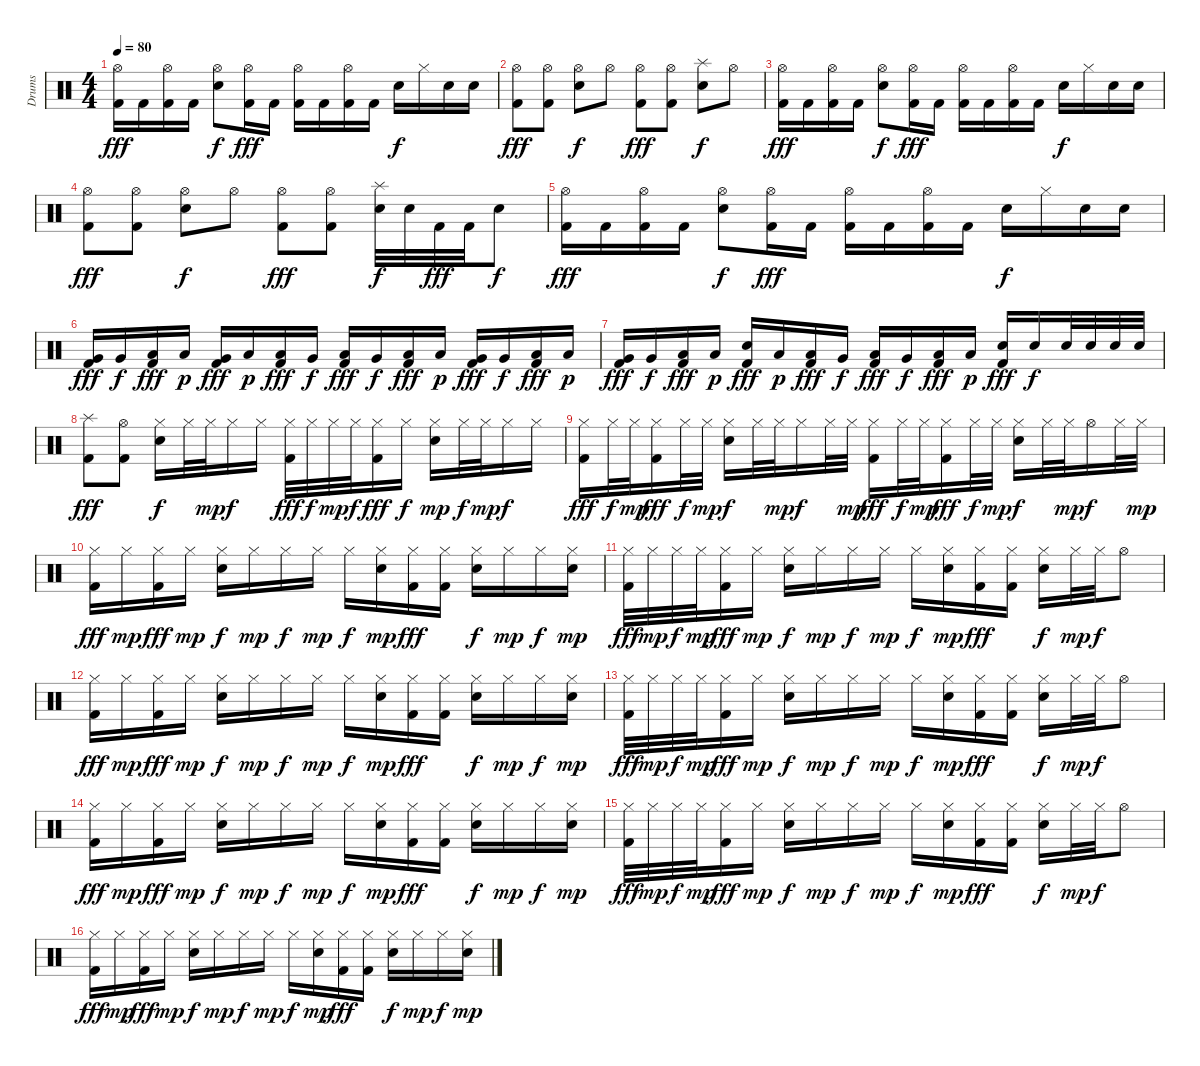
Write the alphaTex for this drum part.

\track ("Drums" "Drums") {instrument percussion}
\staff {score}
\articulation defaults
\ts (4 4)
\tempo 80
\clef neutral
\ks c
("Hi-Hat (open)" "Kick (hit) 2").16{dy fff} "Kick (hit) 2".16 ("Hi-Hat (open)" "Kick (hit) 2").16 "Kick (hit) 2".16 ("Hi-Hat (open)" "Snare (hit) 2").8{dy f} ("Hi-Hat (open)" "Kick (hit) 2").16{dy fff} "Kick (hit) 2".16 ("Hi-Hat (open)" "Kick (hit) 2").16 "Kick (hit) 2".16 ("Hi-Hat (open)" "Kick (hit) 2").16 "Kick (hit) 2".16 "Snare (hit) 2".16{dy f} "Hi-Hat (closed)".16 "Snare (hit) 2".16 "Snare (hit) 2".16 |
("Hi-Hat (open)" "Kick (hit) 2").8{dy fff} ("Hi-Hat (open)" "Kick (hit) 2").8 ("Hi-Hat (open)" "Snare (hit) 2").8{dy f} "Hi-Hat (open)".8 ("Hi-Hat (open)" "Kick (hit) 2").8{dy fff} ("Hi-Hat (open)" "Kick (hit) 2").8 ("Splash (hit)" "Snare (hit) 2").8{dy f} "Hi-Hat (open)".8 |
("Hi-Hat (open)" "Kick (hit) 2").16{dy fff} "Kick (hit) 2".16 ("Hi-Hat (open)" "Kick (hit) 2").16 "Kick (hit) 2".16 ("Hi-Hat (open)" "Snare (hit) 2").8{dy f} ("Hi-Hat (open)" "Kick (hit) 2").16{dy fff} "Kick (hit) 2".16 ("Hi-Hat (open)" "Kick (hit) 2").16 "Kick (hit) 2".16 ("Hi-Hat (open)" "Kick (hit) 2").16 "Kick (hit) 2".16 "Snare (hit) 2".16{dy f} "Hi-Hat (closed)".16 "Snare (hit) 2".16 "Snare (hit) 2".16 |
("Hi-Hat (open)" "Kick (hit) 2").8{dy fff} ("Hi-Hat (open)" "Kick (hit) 2").8 ("Hi-Hat (open)" "Snare (hit) 2").8{dy f} "Hi-Hat (open)".8 ("Hi-Hat (open)" "Kick (hit) 2").8{dy fff} ("Hi-Hat (open)" "Kick (hit) 2").8 ("Splash (hit)" "Snare (hit) 2").32{dy f} "Snare (hit) 2".32 "Kick (hit) 2".32{dy fff} "Kick (hit) 2".32 "Snare (hit) 2".8{dy f} |
("Hi-Hat (open)" "Kick (hit) 2").16{dy fff} "Kick (hit) 2".16 ("Hi-Hat (open)" "Kick (hit) 2").16 "Kick (hit) 2".16 ("Hi-Hat (open)" "Snare (hit) 2").8{dy f} ("Hi-Hat (open)" "Kick (hit) 2").16{dy fff} "Kick (hit) 2".16 ("Hi-Hat (open)" "Kick (hit) 2").16 "Kick (hit) 2".16 ("Hi-Hat (open)" "Kick (hit) 2").16 "Kick (hit) 2".16 "Snare (hit) 2".16{dy f} "Hi-Hat (closed)".16 "Snare (hit) 2".16 "Snare (hit) 2".16 |
("Very Low Tom (hit)" "Kick (hit) 2").16{dy fff} "Very Low Tom (hit)".16{dy f} ("Low Floor Tom (hit)" "Kick (hit) 2").16{dy fff} "Low Floor Tom (hit)".16{dy p} ("Very Low Tom (hit)" "Kick (hit) 2").16{dy fff} "Low Floor Tom (hit)".16{dy p} ("Low Floor Tom (hit)" "Kick (hit) 2").16{dy fff} "Very Low Tom (hit)".16{dy f} ("Low Floor Tom (hit)" "Kick (hit) 2").16{dy fff} "Very Low Tom (hit)".16{dy f} ("Low Floor Tom (hit)" "Kick (hit) 2").16{dy fff} "Low Floor Tom (hit)".16{dy p} ("Very Low Tom (hit)" "Kick (hit) 2").16{dy fff} "Very Low Tom (hit)".16{dy f} ("Low Floor Tom (hit)" "Kick (hit) 2").16{dy fff} "Low Floor Tom (hit)".16{dy p} |
("Very Low Tom (hit)" "Kick (hit) 2").16{dy fff} "Very Low Tom (hit)".16{dy f} ("Low Floor Tom (hit)" "Kick (hit) 2").16{dy fff} "Low Floor Tom (hit)".16{dy p} ("Snare (hit) 2" "Kick (hit) 2").16{dy fff} "Low Floor Tom (hit)".16{dy p} ("Low Floor Tom (hit)" "Kick (hit) 2").16{dy fff} "Very Low Tom (hit)".16{dy f} ("Low Floor Tom (hit)" "Kick (hit) 2").16{dy fff} "Very Low Tom (hit)".16{dy f} ("Low Floor Tom (hit)" "Kick (hit) 2").16{dy fff} "Low Floor Tom (hit)".16{dy p} ("Snare (hit) 2" "Kick (hit) 2").16{dy fff} "Snare (hit) 2".16{dy f} "Snare (hit) 2".32 "Snare (hit) 2".32 "Snare (hit) 2".32 "Snare (hit) 2".32 |
("Splash (hit)" "Kick (hit) 2").8{dy fff} ("Hi-Hat (open)" "Kick (hit) 2").8 ("Hi-Hat (closed)" "Snare (hit) 2").16{dy f} "Hi-Hat (closed)".32 "Hi-Hat (closed)".32{dy mp} "Hi-Hat (closed)".16{dy f} "Hi-Hat (closed)".16 ("Hi-Hat (closed)" "Kick (hit) 2").32{dy fff} "Hi-Hat (closed)".32{dy f} "Hi-Hat (closed)".32{dy mp} "Hi-Hat (closed)".32{dy f} ("Hi-Hat (closed)" "Kick (hit) 2").16{dy fff} "Hi-Hat (closed)".16{dy f} ("Hi-Hat (closed)" "Snare (hit) 2").16{dy mp} "Hi-Hat (closed)".32{dy f} "Hi-Hat (closed)".32{dy mp} "Hi-Hat (closed)".16{dy f} "Hi-Hat (closed)".16 |
("Hi-Hat (closed)" "Kick (hit) 2").16{dy fff} "Hi-Hat (closed)".32{dy f} "Hi-Hat (closed)".32{dy mp} ("Hi-Hat (closed)" "Kick (hit) 2").16{dy fff} "Hi-Hat (closed)".32{dy f} "Hi-Hat (closed)".32{dy mp} ("Hi-Hat (closed)" "Snare (hit) 2").16{dy f} "Hi-Hat (closed)".32 "Hi-Hat (closed)".32{dy mp} "Hi-Hat (closed)".16{dy f} "Hi-Hat (closed)".32 "Hi-Hat (closed)".32{dy mp} ("Hi-Hat (closed)" "Kick (hit) 2").16{dy fff} "Hi-Hat (closed)".32{dy f} "Hi-Hat (closed)".32{dy mp} ("Hi-Hat (closed)" "Kick (hit) 2").16{dy fff} "Hi-Hat (closed)".32{dy f} "Hi-Hat (closed)".32{dy mp} ("Hi-Hat (closed)" "Snare (hit) 2").16{dy f} "Hi-Hat (closed)".32 "Hi-Hat (closed)".32{dy mp} "Hi-Hat (open)".16{dy f} "Hi-Hat (closed)".32 "Hi-Hat (closed)".32{dy mp} |
("Hi-Hat (closed)" "Kick (hit) 2").16{dy fff} "Hi-Hat (closed)".16{dy mp} ("Hi-Hat (closed)" "Kick (hit) 2").16{dy fff} "Hi-Hat (closed)".16{dy mp} ("Hi-Hat (closed)" "Snare (hit) 2").16{dy f} "Hi-Hat (closed)".16{dy mp} "Hi-Hat (closed)".16{dy f} "Hi-Hat (closed)".16{dy mp} "Hi-Hat (closed)".16{dy f} ("Hi-Hat (closed)" "Snare (hit) 2").16{dy mp} ("Hi-Hat (closed)" "Kick (hit) 2").16{dy fff} ("Hi-Hat (closed)" "Kick (hit) 2").16 ("Hi-Hat (closed)" "Snare (hit) 2").16{dy f} "Hi-Hat (closed)".16{dy mp} "Hi-Hat (closed)".16{dy f} ("Hi-Hat (closed)" "Snare (hit) 2").16{dy mp} |
("Hi-Hat (closed)" "Kick (hit) 2").32{dy fff} "Hi-Hat (closed)".32{dy mp} "Hi-Hat (closed)".32{dy f} "Hi-Hat (closed)".32{dy mp} ("Hi-Hat (closed)" "Kick (hit) 2").16{dy fff} "Hi-Hat (closed)".16{dy mp} ("Hi-Hat (closed)" "Snare (hit) 2").16{dy f} "Hi-Hat (closed)".16{dy mp} "Hi-Hat (closed)".16{dy f} "Hi-Hat (closed)".16{dy mp} "Hi-Hat (closed)".16{dy f} ("Hi-Hat (closed)" "Snare (hit) 2").16{dy mp} ("Hi-Hat (closed)" "Kick (hit) 2").16{dy fff} ("Hi-Hat (closed)" "Kick (hit) 2").16 ("Hi-Hat (closed)" "Snare (hit) 2").16{dy f} "Hi-Hat (closed)".32{dy mp} "Hi-Hat (closed)".32{dy f} "Hi-Hat (open)".8 |
("Hi-Hat (closed)" "Kick (hit) 2").16{dy fff} "Hi-Hat (closed)".16{dy mp} ("Hi-Hat (closed)" "Kick (hit) 2").16{dy fff} "Hi-Hat (closed)".16{dy mp} ("Hi-Hat (closed)" "Snare (hit) 2").16{dy f} "Hi-Hat (closed)".16{dy mp} "Hi-Hat (closed)".16{dy f} "Hi-Hat (closed)".16{dy mp} "Hi-Hat (closed)".16{dy f} ("Hi-Hat (closed)" "Snare (hit) 2").16{dy mp} ("Hi-Hat (closed)" "Kick (hit) 2").16{dy fff} ("Hi-Hat (closed)" "Kick (hit) 2").16 ("Hi-Hat (closed)" "Snare (hit) 2").16{dy f} "Hi-Hat (closed)".16{dy mp} "Hi-Hat (closed)".16{dy f} ("Hi-Hat (closed)" "Snare (hit) 2").16{dy mp} |
("Hi-Hat (closed)" "Kick (hit) 2").32{dy fff} "Hi-Hat (closed)".32{dy mp} "Hi-Hat (closed)".32{dy f} "Hi-Hat (closed)".32{dy mp} ("Hi-Hat (closed)" "Kick (hit) 2").16{dy fff} "Hi-Hat (closed)".16{dy mp} ("Hi-Hat (closed)" "Snare (hit) 2").16{dy f} "Hi-Hat (closed)".16{dy mp} "Hi-Hat (closed)".16{dy f} "Hi-Hat (closed)".16{dy mp} "Hi-Hat (closed)".16{dy f} ("Hi-Hat (closed)" "Snare (hit) 2").16{dy mp} ("Hi-Hat (closed)" "Kick (hit) 2").16{dy fff} ("Hi-Hat (closed)" "Kick (hit) 2").16 ("Hi-Hat (closed)" "Snare (hit) 2").16{dy f} "Hi-Hat (closed)".32{dy mp} "Hi-Hat (closed)".32{dy f} "Hi-Hat (open)".8 |
("Hi-Hat (closed)" "Kick (hit) 2").16{dy fff} "Hi-Hat (closed)".16{dy mp} ("Hi-Hat (closed)" "Kick (hit) 2").16{dy fff} "Hi-Hat (closed)".16{dy mp} ("Hi-Hat (closed)" "Snare (hit) 2").16{dy f} "Hi-Hat (closed)".16{dy mp} "Hi-Hat (closed)".16{dy f} "Hi-Hat (closed)".16{dy mp} "Hi-Hat (closed)".16{dy f} ("Hi-Hat (closed)" "Snare (hit) 2").16{dy mp} ("Hi-Hat (closed)" "Kick (hit) 2").16{dy fff} ("Hi-Hat (closed)" "Kick (hit) 2").16 ("Hi-Hat (closed)" "Snare (hit) 2").16{dy f} "Hi-Hat (closed)".16{dy mp} "Hi-Hat (closed)".16{dy f} ("Hi-Hat (closed)" "Snare (hit) 2").16{dy mp} |
("Hi-Hat (closed)" "Kick (hit) 2").32{dy fff} "Hi-Hat (closed)".32{dy mp} "Hi-Hat (closed)".32{dy f} "Hi-Hat (closed)".32{dy mp} ("Hi-Hat (closed)" "Kick (hit) 2").16{dy fff} "Hi-Hat (closed)".16{dy mp} ("Hi-Hat (closed)" "Snare (hit) 2").16{dy f} "Hi-Hat (closed)".16{dy mp} "Hi-Hat (closed)".16{dy f} "Hi-Hat (closed)".16{dy mp} "Hi-Hat (closed)".16{dy f} ("Hi-Hat (closed)" "Snare (hit) 2").16{dy mp} ("Hi-Hat (closed)" "Kick (hit) 2").16{dy fff} ("Hi-Hat (closed)" "Kick (hit) 2").16 ("Hi-Hat (closed)" "Snare (hit) 2").16{dy f} "Hi-Hat (closed)".32{dy mp} "Hi-Hat (closed)".32{dy f} "Hi-Hat (open)".8 |
("Hi-Hat (closed)" "Kick (hit) 2").16{dy fff} "Hi-Hat (closed)".16{dy mp} ("Hi-Hat (closed)" "Kick (hit) 2").16{dy fff} "Hi-Hat (closed)".16{dy mp} ("Hi-Hat (closed)" "Snare (hit) 2").16{dy f} "Hi-Hat (closed)".16{dy mp} "Hi-Hat (closed)".16{dy f} "Hi-Hat (closed)".16{dy mp} "Hi-Hat (closed)".16{dy f} ("Hi-Hat (closed)" "Snare (hit) 2").16{dy mp} ("Hi-Hat (closed)" "Kick (hit) 2").16{dy fff} ("Hi-Hat (closed)" "Kick (hit) 2").16 ("Hi-Hat (closed)" "Snare (hit) 2").16{dy f} "Hi-Hat (closed)".16{dy mp} "Hi-Hat (closed)".16{dy f} ("Hi-Hat (closed)" "Snare (hit) 2").16{dy mp}
